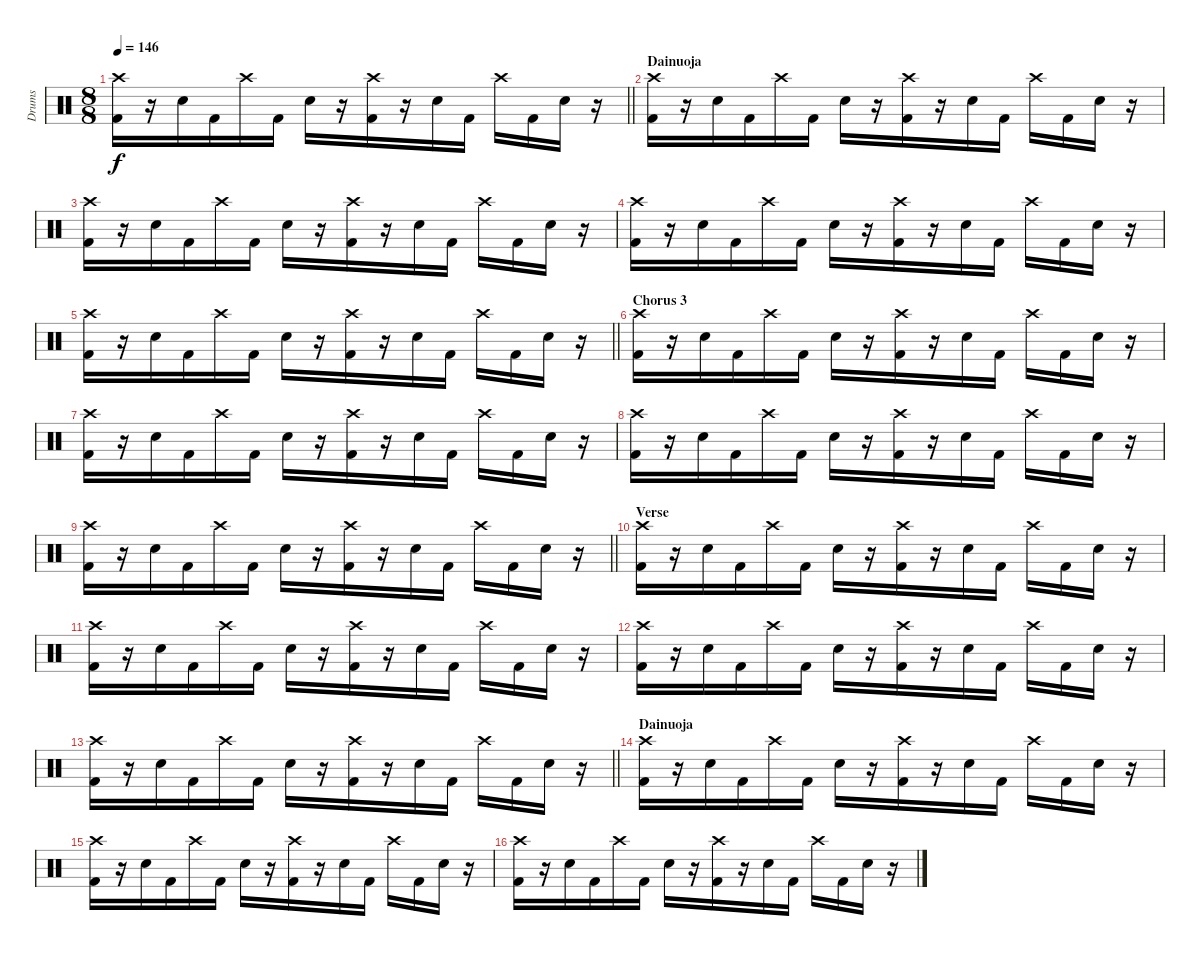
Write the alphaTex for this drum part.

\track ("Drums" "Drums") {instrument percussion}
\staff {score}
\articulation defaults
\ts (8 8)
\tempo 146
\clef neutral
\barLineRight lightlight
\ks c
("Crash high (hit)" "Kick (hit) 2").16{dy f} r.16 "Snare (hit) 2".16 "Kick (hit) 2".16 "Crash high (hit)".16 "Kick (hit) 2".16 "Snare (hit) 2".16 r.16 ("Crash high (hit)" "Kick (hit) 2").16 r.16 "Snare (hit) 2".16 "Kick (hit) 2".16 "Crash high (hit)".16 "Kick (hit) 2".16 "Snare (hit) 2".16 r.16 |
\section ("" "Dainuoja")
("Crash high (hit)" "Kick (hit) 2").16 r.16 "Snare (hit) 2".16 "Kick (hit) 2".16 "Crash high (hit)".16 "Kick (hit) 2".16 "Snare (hit) 2".16 r.16 ("Crash high (hit)" "Kick (hit) 2").16 r.16 "Snare (hit) 2".16 "Kick (hit) 2".16 "Crash high (hit)".16 "Kick (hit) 2".16 "Snare (hit) 2".16 r.16 |
("Crash high (hit)" "Kick (hit) 2").16 r.16 "Snare (hit) 2".16 "Kick (hit) 2".16 "Crash high (hit)".16 "Kick (hit) 2".16 "Snare (hit) 2".16 r.16 ("Crash high (hit)" "Kick (hit) 2").16 r.16 "Snare (hit) 2".16 "Kick (hit) 2".16 "Crash high (hit)".16 "Kick (hit) 2".16 "Snare (hit) 2".16 r.16 |
("Crash high (hit)" "Kick (hit) 2").16 r.16 "Snare (hit) 2".16 "Kick (hit) 2".16 "Crash high (hit)".16 "Kick (hit) 2".16 "Snare (hit) 2".16 r.16 ("Crash high (hit)" "Kick (hit) 2").16 r.16 "Snare (hit) 2".16 "Kick (hit) 2".16 "Crash high (hit)".16 "Kick (hit) 2".16 "Snare (hit) 2".16 r.16 |
\barLineRight lightlight
("Crash high (hit)" "Kick (hit) 2").16 r.16 "Snare (hit) 2".16 "Kick (hit) 2".16 "Crash high (hit)".16 "Kick (hit) 2".16 "Snare (hit) 2".16 r.16 ("Crash high (hit)" "Kick (hit) 2").16 r.16 "Snare (hit) 2".16 "Kick (hit) 2".16 "Crash high (hit)".16 "Kick (hit) 2".16 "Snare (hit) 2".16 r.16 |
\section ("" "Chorus 3")
("Crash high (hit)" "Kick (hit) 2").16 r.16 "Snare (hit) 2".16 "Kick (hit) 2".16 "Crash high (hit)".16 "Kick (hit) 2".16 "Snare (hit) 2".16 r.16 ("Crash high (hit)" "Kick (hit) 2").16 r.16 "Snare (hit) 2".16 "Kick (hit) 2".16 "Crash high (hit)".16 "Kick (hit) 2".16 "Snare (hit) 2".16 r.16 |
("Crash high (hit)" "Kick (hit) 2").16 r.16 "Snare (hit) 2".16 "Kick (hit) 2".16 "Crash high (hit)".16 "Kick (hit) 2".16 "Snare (hit) 2".16 r.16 ("Crash high (hit)" "Kick (hit) 2").16 r.16 "Snare (hit) 2".16 "Kick (hit) 2".16 "Crash high (hit)".16 "Kick (hit) 2".16 "Snare (hit) 2".16 r.16 |
("Crash high (hit)" "Kick (hit) 2").16 r.16 "Snare (hit) 2".16 "Kick (hit) 2".16 "Crash high (hit)".16 "Kick (hit) 2".16 "Snare (hit) 2".16 r.16 ("Crash high (hit)" "Kick (hit) 2").16 r.16 "Snare (hit) 2".16 "Kick (hit) 2".16 "Crash high (hit)".16 "Kick (hit) 2".16 "Snare (hit) 2".16 r.16 |
\barLineRight lightlight
("Crash high (hit)" "Kick (hit) 2").16 r.16 "Snare (hit) 2".16 "Kick (hit) 2".16 "Crash high (hit)".16 "Kick (hit) 2".16 "Snare (hit) 2".16 r.16 ("Crash high (hit)" "Kick (hit) 2").16 r.16 "Snare (hit) 2".16 "Kick (hit) 2".16 "Crash high (hit)".16 "Kick (hit) 2".16 "Snare (hit) 2".16 r.16 |
\section ("" "Verse")
("Crash high (hit)" "Kick (hit) 2").16 r.16 "Snare (hit) 2".16 "Kick (hit) 2".16 "Crash high (hit)".16 "Kick (hit) 2".16 "Snare (hit) 2".16 r.16 ("Crash high (hit)" "Kick (hit) 2").16 r.16 "Snare (hit) 2".16 "Kick (hit) 2".16 "Crash high (hit)".16 "Kick (hit) 2".16 "Snare (hit) 2".16 r.16 |
("Crash high (hit)" "Kick (hit) 2").16 r.16 "Snare (hit) 2".16 "Kick (hit) 2".16 "Crash high (hit)".16 "Kick (hit) 2".16 "Snare (hit) 2".16 r.16 ("Crash high (hit)" "Kick (hit) 2").16 r.16 "Snare (hit) 2".16 "Kick (hit) 2".16 "Crash high (hit)".16 "Kick (hit) 2".16 "Snare (hit) 2".16 r.16 |
("Crash high (hit)" "Kick (hit) 2").16 r.16 "Snare (hit) 2".16 "Kick (hit) 2".16 "Crash high (hit)".16 "Kick (hit) 2".16 "Snare (hit) 2".16 r.16 ("Crash high (hit)" "Kick (hit) 2").16 r.16 "Snare (hit) 2".16 "Kick (hit) 2".16 "Crash high (hit)".16 "Kick (hit) 2".16 "Snare (hit) 2".16 r.16 |
\barLineRight lightlight
("Crash high (hit)" "Kick (hit) 2").16 r.16 "Snare (hit) 2".16 "Kick (hit) 2".16 "Crash high (hit)".16 "Kick (hit) 2".16 "Snare (hit) 2".16 r.16 ("Crash high (hit)" "Kick (hit) 2").16 r.16 "Snare (hit) 2".16 "Kick (hit) 2".16 "Crash high (hit)".16 "Kick (hit) 2".16 "Snare (hit) 2".16 r.16 |
\section ("" "Dainuoja")
("Crash high (hit)" "Kick (hit) 2").16 r.16 "Snare (hit) 2".16 "Kick (hit) 2".16 "Crash high (hit)".16 "Kick (hit) 2".16 "Snare (hit) 2".16 r.16 ("Crash high (hit)" "Kick (hit) 2").16 r.16 "Snare (hit) 2".16 "Kick (hit) 2".16 "Crash high (hit)".16 "Kick (hit) 2".16 "Snare (hit) 2".16 r.16 |
("Crash high (hit)" "Kick (hit) 2").16 r.16 "Snare (hit) 2".16 "Kick (hit) 2".16 "Crash high (hit)".16 "Kick (hit) 2".16 "Snare (hit) 2".16 r.16 ("Crash high (hit)" "Kick (hit) 2").16 r.16 "Snare (hit) 2".16 "Kick (hit) 2".16 "Crash high (hit)".16 "Kick (hit) 2".16 "Snare (hit) 2".16 r.16 |
("Crash high (hit)" "Kick (hit) 2").16 r.16 "Snare (hit) 2".16 "Kick (hit) 2".16 "Crash high (hit)".16 "Kick (hit) 2".16 "Snare (hit) 2".16 r.16 ("Crash high (hit)" "Kick (hit) 2").16 r.16 "Snare (hit) 2".16 "Kick (hit) 2".16 "Crash high (hit)".16 "Kick (hit) 2".16 "Snare (hit) 2".16 r.16
